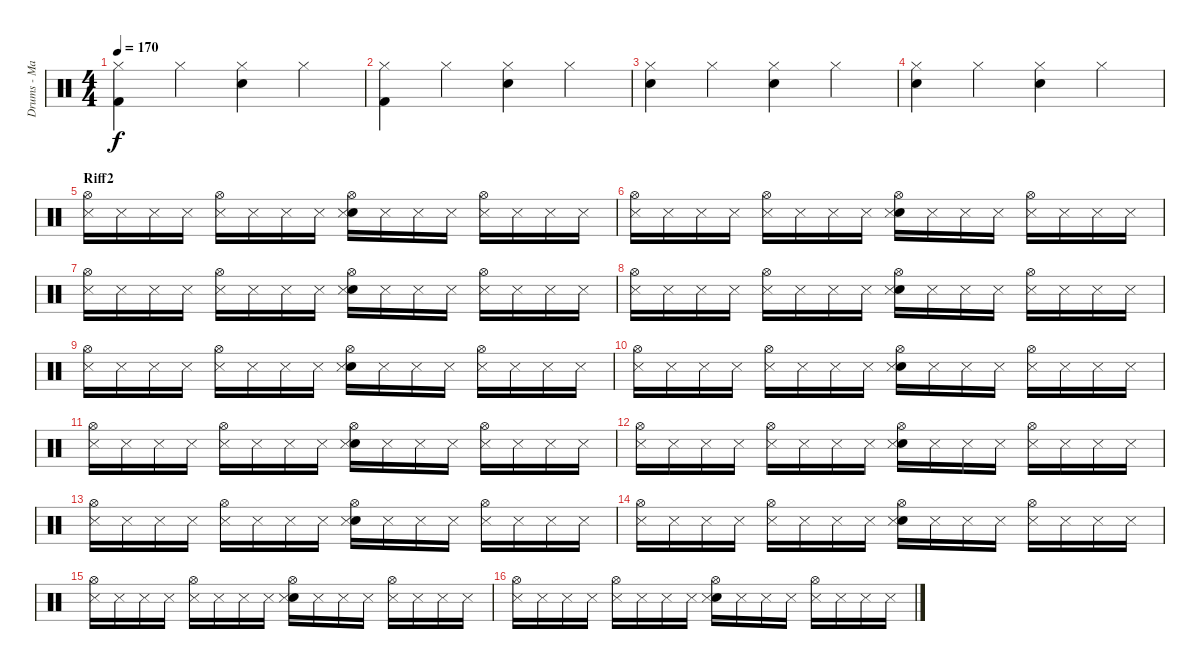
\track ("Drums - Mattias Grahn" "Drums - Ma") {instrument percussion}
\staff {score}
\articulation defaults
\ts (4 4)
\tempo 170
\clef neutral
\ks c
("Hi-Hat (closed)" "Kick (hit) 2").4{dy f} "Hi-Hat (closed)".4 ("Hi-Hat (closed)" "Snare (hit) 2").4 "Hi-Hat (closed)".4 |
("Hi-Hat (closed)" "Kick (hit) 2").4 "Hi-Hat (closed)".4 ("Hi-Hat (closed)" "Snare (hit) 2").4 "Hi-Hat (closed)".4 |
("Hi-Hat (closed)" "Snare (hit) 2").4 "Hi-Hat (closed)".4 ("Hi-Hat (closed)" "Snare (hit) 2").4 "Hi-Hat (closed)".4 |
("Hi-Hat (closed)" "Snare (hit) 2").4 "Hi-Hat (closed)".4 ("Hi-Hat (closed)" "Snare (hit) 2").4 "Hi-Hat (closed)".4 |
\section ("" "Riff2")
("Hi-Hat (open)" "Snare (side stick) 3").16 "Snare (side stick) 3".16 "Snare (side stick) 3".16 "Snare (side stick) 3".16 ("Hi-Hat (open)" "Snare (side stick) 3").16 "Snare (side stick) 3".16 "Snare (side stick) 3".16 "Snare (side stick) 3".16 ("Electric Snare (hit)" "Hi-Hat (open)" "Snare (side stick) 3").16 "Snare (side stick) 3".16 "Snare (side stick) 3".16 "Snare (side stick) 3".16 ("Hi-Hat (open)" "Snare (side stick) 3").16 "Snare (side stick) 3".16 "Snare (side stick) 3".16 "Snare (side stick) 3".16 |
("Hi-Hat (open)" "Snare (side stick) 3").16 "Snare (side stick) 3".16 "Snare (side stick) 3".16 "Snare (side stick) 3".16 ("Hi-Hat (open)" "Snare (side stick) 3").16 "Snare (side stick) 3".16 "Snare (side stick) 3".16 "Snare (side stick) 3".16 ("Electric Snare (hit)" "Hi-Hat (open)" "Snare (side stick) 3").16 "Snare (side stick) 3".16 "Snare (side stick) 3".16 "Snare (side stick) 3".16 ("Hi-Hat (open)" "Snare (side stick) 3").16 "Snare (side stick) 3".16 "Snare (side stick) 3".16 "Snare (side stick) 3".16 |
("Hi-Hat (open)" "Snare (side stick) 3").16 "Snare (side stick) 3".16 "Snare (side stick) 3".16 "Snare (side stick) 3".16 ("Hi-Hat (open)" "Snare (side stick) 3").16 "Snare (side stick) 3".16 "Snare (side stick) 3".16 "Snare (side stick) 3".16 ("Electric Snare (hit)" "Hi-Hat (open)" "Snare (side stick) 3").16 "Snare (side stick) 3".16 "Snare (side stick) 3".16 "Snare (side stick) 3".16 ("Hi-Hat (open)" "Snare (side stick) 3").16 "Snare (side stick) 3".16 "Snare (side stick) 3".16 "Snare (side stick) 3".16 |
("Hi-Hat (open)" "Snare (side stick) 3").16 "Snare (side stick) 3".16 "Snare (side stick) 3".16 "Snare (side stick) 3".16 ("Hi-Hat (open)" "Snare (side stick) 3").16 "Snare (side stick) 3".16 "Snare (side stick) 3".16 "Snare (side stick) 3".16 ("Electric Snare (hit)" "Hi-Hat (open)" "Snare (side stick) 3").16 "Snare (side stick) 3".16 "Snare (side stick) 3".16 "Snare (side stick) 3".16 ("Hi-Hat (open)" "Snare (side stick) 3").16 "Snare (side stick) 3".16 "Snare (side stick) 3".16 "Snare (side stick) 3".16 |
("Hi-Hat (open)" "Snare (side stick) 3").16 "Snare (side stick) 3".16 "Snare (side stick) 3".16 "Snare (side stick) 3".16 ("Hi-Hat (open)" "Snare (side stick) 3").16 "Snare (side stick) 3".16 "Snare (side stick) 3".16 "Snare (side stick) 3".16 ("Electric Snare (hit)" "Hi-Hat (open)" "Snare (side stick) 3").16 "Snare (side stick) 3".16 "Snare (side stick) 3".16 "Snare (side stick) 3".16 ("Hi-Hat (open)" "Snare (side stick) 3").16 "Snare (side stick) 3".16 "Snare (side stick) 3".16 "Snare (side stick) 3".16 |
("Hi-Hat (open)" "Snare (side stick) 3").16 "Snare (side stick) 3".16 "Snare (side stick) 3".16 "Snare (side stick) 3".16 ("Hi-Hat (open)" "Snare (side stick) 3").16 "Snare (side stick) 3".16 "Snare (side stick) 3".16 "Snare (side stick) 3".16 ("Electric Snare (hit)" "Hi-Hat (open)" "Snare (side stick) 3").16 "Snare (side stick) 3".16 "Snare (side stick) 3".16 "Snare (side stick) 3".16 ("Hi-Hat (open)" "Snare (side stick) 3").16 "Snare (side stick) 3".16 "Snare (side stick) 3".16 "Snare (side stick) 3".16 |
("Hi-Hat (open)" "Snare (side stick) 3").16 "Snare (side stick) 3".16 "Snare (side stick) 3".16 "Snare (side stick) 3".16 ("Hi-Hat (open)" "Snare (side stick) 3").16 "Snare (side stick) 3".16 "Snare (side stick) 3".16 "Snare (side stick) 3".16 ("Electric Snare (hit)" "Hi-Hat (open)" "Snare (side stick) 3").16 "Snare (side stick) 3".16 "Snare (side stick) 3".16 "Snare (side stick) 3".16 ("Hi-Hat (open)" "Snare (side stick) 3").16 "Snare (side stick) 3".16 "Snare (side stick) 3".16 "Snare (side stick) 3".16 |
("Hi-Hat (open)" "Snare (side stick) 3").16 "Snare (side stick) 3".16 "Snare (side stick) 3".16 "Snare (side stick) 3".16 ("Hi-Hat (open)" "Snare (side stick) 3").16 "Snare (side stick) 3".16 "Snare (side stick) 3".16 "Snare (side stick) 3".16 ("Electric Snare (hit)" "Hi-Hat (open)" "Snare (side stick) 3").16 "Snare (side stick) 3".16 "Snare (side stick) 3".16 "Snare (side stick) 3".16 ("Hi-Hat (open)" "Snare (side stick) 3").16 "Snare (side stick) 3".16 "Snare (side stick) 3".16 "Snare (side stick) 3".16 |
("Hi-Hat (open)" "Snare (side stick) 3").16 "Snare (side stick) 3".16 "Snare (side stick) 3".16 "Snare (side stick) 3".16 ("Hi-Hat (open)" "Snare (side stick) 3").16 "Snare (side stick) 3".16 "Snare (side stick) 3".16 "Snare (side stick) 3".16 ("Electric Snare (hit)" "Hi-Hat (open)" "Snare (side stick) 3").16 "Snare (side stick) 3".16 "Snare (side stick) 3".16 "Snare (side stick) 3".16 ("Hi-Hat (open)" "Snare (side stick) 3").16 "Snare (side stick) 3".16 "Snare (side stick) 3".16 "Snare (side stick) 3".16 |
("Hi-Hat (open)" "Snare (side stick) 3").16 "Snare (side stick) 3".16 "Snare (side stick) 3".16 "Snare (side stick) 3".16 ("Hi-Hat (open)" "Snare (side stick) 3").16 "Snare (side stick) 3".16 "Snare (side stick) 3".16 "Snare (side stick) 3".16 ("Electric Snare (hit)" "Hi-Hat (open)" "Snare (side stick) 3").16 "Snare (side stick) 3".16 "Snare (side stick) 3".16 "Snare (side stick) 3".16 ("Hi-Hat (open)" "Snare (side stick) 3").16 "Snare (side stick) 3".16 "Snare (side stick) 3".16 "Snare (side stick) 3".16 |
("Hi-Hat (open)" "Snare (side stick) 3").16 "Snare (side stick) 3".16 "Snare (side stick) 3".16 "Snare (side stick) 3".16 ("Hi-Hat (open)" "Snare (side stick) 3").16 "Snare (side stick) 3".16 "Snare (side stick) 3".16 "Snare (side stick) 3".16 ("Electric Snare (hit)" "Hi-Hat (open)" "Snare (side stick) 3").16 "Snare (side stick) 3".16 "Snare (side stick) 3".16 "Snare (side stick) 3".16 ("Hi-Hat (open)" "Snare (side stick) 3").16 "Snare (side stick) 3".16 "Snare (side stick) 3".16 "Snare (side stick) 3".16 |
("Hi-Hat (open)" "Snare (side stick) 3").16 "Snare (side stick) 3".16 "Snare (side stick) 3".16 "Snare (side stick) 3".16 ("Hi-Hat (open)" "Snare (side stick) 3").16 "Snare (side stick) 3".16 "Snare (side stick) 3".16 "Snare (side stick) 3".16 ("Electric Snare (hit)" "Hi-Hat (open)" "Snare (side stick) 3").16 "Snare (side stick) 3".16 "Snare (side stick) 3".16 "Snare (side stick) 3".16 ("Hi-Hat (open)" "Snare (side stick) 3").16 "Snare (side stick) 3".16 "Snare (side stick) 3".16 "Snare (side stick) 3".16
